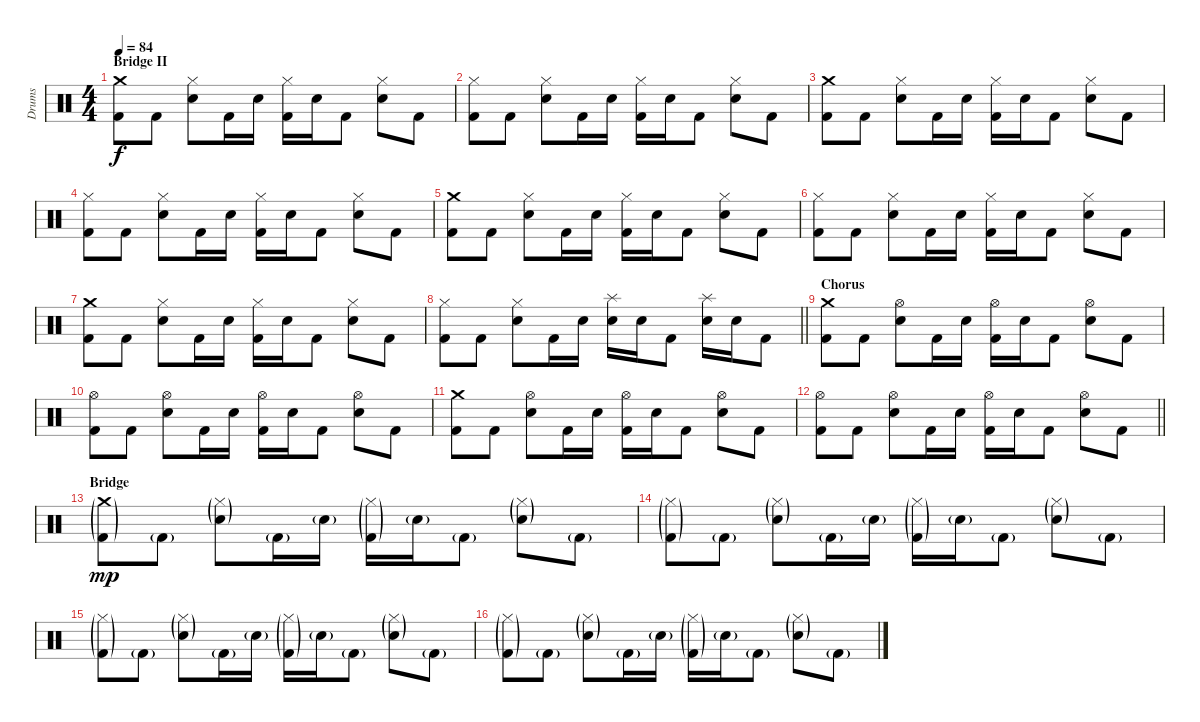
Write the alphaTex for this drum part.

\track ("Drums" "Drums") {instrument percussion}
\staff {score}
\articulation defaults
\ts (4 4)
\section ("" "Bridge II")
\tempo 84
\clef neutral
\ks c
("Crash medium (hit)" "Kick (hit) 2").8{dy f} "Kick (hit) 2".8 ("Hi-Hat (closed)" "Snare (hit) 2").8 "Kick (hit) 2".16 "Snare (hit) 2".16 ("Hi-Hat (closed)" "Kick (hit) 2").16 "Snare (hit) 2".16 "Kick (hit) 2".8 ("Hi-Hat (closed)" "Snare (hit) 2").8 "Kick (hit) 2".8 |
("Hi-Hat (closed)" "Kick (hit) 2").8 "Kick (hit) 2".8 ("Hi-Hat (closed)" "Snare (hit) 2").8 "Kick (hit) 2".16 "Snare (hit) 2".16 ("Hi-Hat (closed)" "Kick (hit) 2").16 "Snare (hit) 2".16 "Kick (hit) 2".8 ("Hi-Hat (closed)" "Snare (hit) 2").8 "Kick (hit) 2".8 |
("Crash medium (hit)" "Kick (hit) 2").8 "Kick (hit) 2".8 ("Hi-Hat (closed)" "Snare (hit) 2").8 "Kick (hit) 2".16 "Snare (hit) 2".16 ("Hi-Hat (closed)" "Kick (hit) 2").16 "Snare (hit) 2".16 "Kick (hit) 2".8 ("Hi-Hat (closed)" "Snare (hit) 2").8 "Kick (hit) 2".8 |
("Hi-Hat (closed)" "Kick (hit) 2").8 "Kick (hit) 2".8 ("Hi-Hat (closed)" "Snare (hit) 2").8 "Kick (hit) 2".16 "Snare (hit) 2".16 ("Hi-Hat (closed)" "Kick (hit) 2").16 "Snare (hit) 2".16 "Kick (hit) 2".8 ("Hi-Hat (closed)" "Snare (hit) 2").8 "Kick (hit) 2".8 |
("Crash medium (hit)" "Kick (hit) 2").8 "Kick (hit) 2".8 ("Hi-Hat (closed)" "Snare (hit) 2").8 "Kick (hit) 2".16 "Snare (hit) 2".16 ("Hi-Hat (closed)" "Kick (hit) 2").16 "Snare (hit) 2".16 "Kick (hit) 2".8 ("Hi-Hat (closed)" "Snare (hit) 2").8 "Kick (hit) 2".8 |
("Hi-Hat (closed)" "Kick (hit) 2").8 "Kick (hit) 2".8 ("Hi-Hat (closed)" "Snare (hit) 2").8 "Kick (hit) 2".16 "Snare (hit) 2".16 ("Hi-Hat (closed)" "Kick (hit) 2").16 "Snare (hit) 2".16 "Kick (hit) 2".8 ("Hi-Hat (closed)" "Snare (hit) 2").8 "Kick (hit) 2".8 |
("Crash medium (hit)" "Kick (hit) 2").8 "Kick (hit) 2".8 ("Hi-Hat (closed)" "Snare (hit) 2").8 "Kick (hit) 2".16 "Snare (hit) 2".16 ("Hi-Hat (closed)" "Kick (hit) 2").16 "Snare (hit) 2".16 "Kick (hit) 2".8 ("Hi-Hat (closed)" "Snare (hit) 2").8 "Kick (hit) 2".8 |
\barLineRight lightlight
("Hi-Hat (closed)" "Kick (hit) 2").8 "Kick (hit) 2".8 ("Hi-Hat (closed)" "Snare (hit) 2").8 "Kick (hit) 2".16 "Snare (hit) 2".16 ("Splash (hit)" "Snare (hit) 2").16 "Snare (hit) 2".16 "Kick (hit) 2".8 ("Splash (hit)" "Snare (hit) 2").16 "Snare (hit) 2".16 "Kick (hit) 2".8 |
\section ("" "Chorus")
("Crash medium (hit)" "Kick (hit) 2").8 "Kick (hit) 2".8 ("Hi-Hat (open)" "Snare (hit) 2").8 "Kick (hit) 2".16 "Snare (hit) 2".16 ("Hi-Hat (open)" "Kick (hit) 2").16 "Snare (hit) 2".16 "Kick (hit) 2".8 ("Hi-Hat (open)" "Snare (hit) 2").8 "Kick (hit) 2".8 |
("Hi-Hat (open)" "Kick (hit) 2").8 "Kick (hit) 2".8 ("Hi-Hat (open)" "Snare (hit) 2").8 "Kick (hit) 2".16 "Snare (hit) 2".16 ("Hi-Hat (open)" "Kick (hit) 2").16 "Snare (hit) 2".16 "Kick (hit) 2".8 ("Hi-Hat (open)" "Snare (hit) 2").8 "Kick (hit) 2".8 |
("Crash medium (hit)" "Kick (hit) 2").8 "Kick (hit) 2".8 ("Hi-Hat (open)" "Snare (hit) 2").8 "Kick (hit) 2".16 "Snare (hit) 2".16 ("Hi-Hat (open)" "Kick (hit) 2").16 "Snare (hit) 2".16 "Kick (hit) 2".8 ("Hi-Hat (open)" "Snare (hit) 2").8 "Kick (hit) 2".8 |
\barLineRight lightlight
("Hi-Hat (open)" "Kick (hit) 2").8 "Kick (hit) 2".8 ("Hi-Hat (open)" "Snare (hit) 2").8 "Kick (hit) 2".16 "Snare (hit) 2".16 ("Hi-Hat (open)" "Kick (hit) 2").16 "Snare (hit) 2".16 "Kick (hit) 2".8 ("Hi-Hat (open)" "Snare (hit) 2").8 "Kick (hit) 2".8 |
\section ("" "Bridge")
("Crash medium (hit)"{g} "Kick (hit) 2"{g}).8{dy mp} "Kick (hit) 2"{g}.8 ("Hi-Hat (closed)"{g} "Snare (hit) 2"{g}).8 "Kick (hit) 2"{g}.16 "Snare (hit) 2"{g}.16 ("Hi-Hat (closed)"{g} "Kick (hit) 2"{g}).16 "Snare (hit) 2"{g}.16 "Kick (hit) 2"{g}.8 ("Hi-Hat (closed)"{g} "Snare (hit) 2"{g}).8 "Kick (hit) 2"{g}.8 |
("Hi-Hat (closed)"{g} "Kick (hit) 2"{g}).8 "Kick (hit) 2"{g}.8 ("Hi-Hat (closed)"{g} "Snare (hit) 2"{g}).8 "Kick (hit) 2"{g}.16 "Snare (hit) 2"{g}.16 ("Hi-Hat (closed)"{g} "Kick (hit) 2"{g}).16 "Snare (hit) 2"{g}.16 "Kick (hit) 2"{g}.8 ("Hi-Hat (closed)"{g} "Snare (hit) 2"{g}).8 "Kick (hit) 2"{g}.8 |
("Hi-Hat (closed)"{g} "Kick (hit) 2"{g}).8 "Kick (hit) 2"{g}.8 ("Hi-Hat (closed)"{g} "Snare (hit) 2"{g}).8 "Kick (hit) 2"{g}.16 "Snare (hit) 2"{g}.16 ("Hi-Hat (closed)"{g} "Kick (hit) 2"{g}).16 "Snare (hit) 2"{g}.16 "Kick (hit) 2"{g}.8 ("Hi-Hat (closed)"{g} "Snare (hit) 2"{g}).8 "Kick (hit) 2"{g}.8 |
("Hi-Hat (closed)"{g} "Kick (hit) 2"{g}).8 "Kick (hit) 2"{g}.8 ("Hi-Hat (closed)"{g} "Snare (hit) 2"{g}).8 "Kick (hit) 2"{g}.16 "Snare (hit) 2"{g}.16 ("Hi-Hat (closed)"{g} "Kick (hit) 2"{g}).16 "Snare (hit) 2"{g}.16 "Kick (hit) 2"{g}.8 ("Hi-Hat (closed)"{g} "Snare (hit) 2"{g}).8 "Kick (hit) 2"{g}.8
